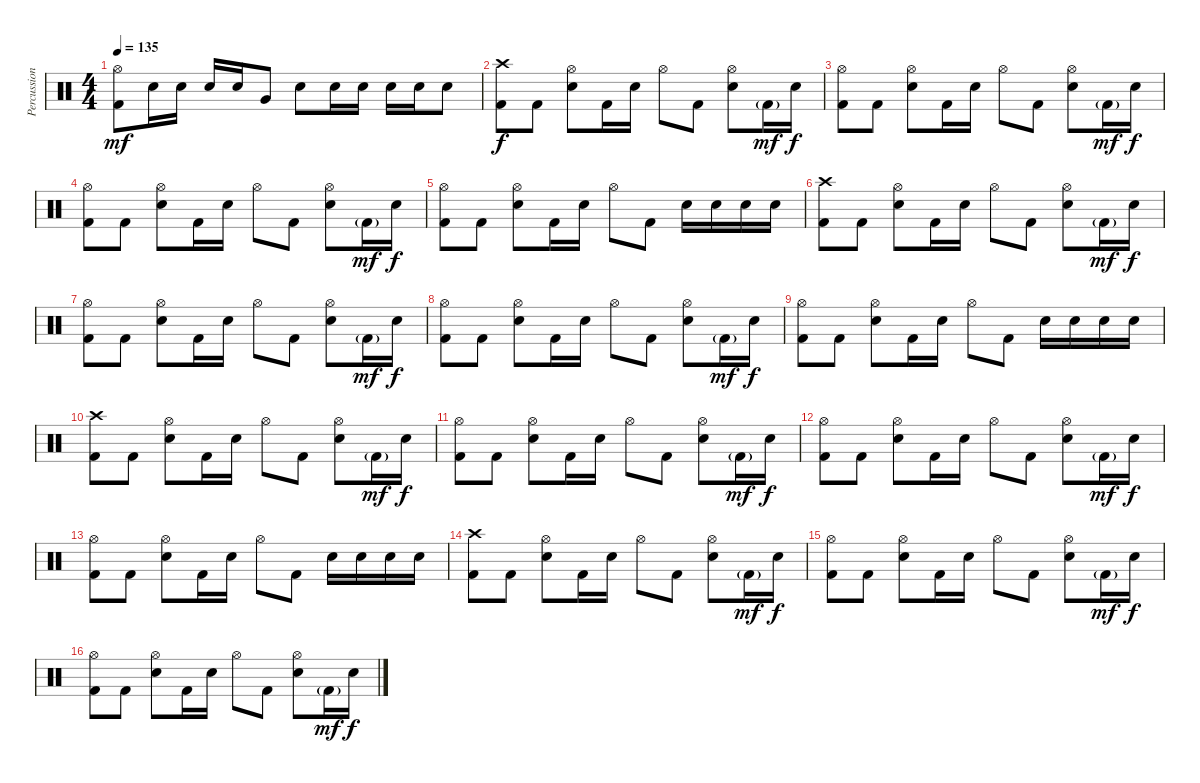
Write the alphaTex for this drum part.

\track ("Percussions" "Percussion") {instrument percussion}
\staff {score}
\articulation defaults
\ts (4 4)
\tempo 135
\clef neutral
\ks c
("Hi-Hat (open)" "Kick (hit) 2").8{dy mf} "Snare (hit) 2".16 "Snare (hit) 2".16 "Snare (hit) 2".16 "Snare (hit) 2".16 "Very Low Tom (hit)".8 "Snare (hit) 2".8 "Snare (hit) 2".16 "Snare (hit) 2".16 "Snare (hit) 2".16 "Snare (hit) 2".16 "Snare (hit) 2".8 |
("Crash high (hit)" "Kick (hit) 2").8{dy f} "Kick (hit) 2".8 ("Hi-Hat (open)" "Snare (hit) 2").8 "Kick (hit) 2".16 "Snare (hit) 2".16 "Hi-Hat (open)".8 "Kick (hit) 2".8 ("Hi-Hat (open)" "Snare (hit) 2").8 "Kick (hit) 2"{g}.16{dy mf} "Snare (hit) 2".16{dy f} |
("Hi-Hat (open)" "Kick (hit) 2").8 "Kick (hit) 2".8 ("Hi-Hat (open)" "Snare (hit) 2").8 "Kick (hit) 2".16 "Snare (hit) 2".16 "Hi-Hat (open)".8 "Kick (hit) 2".8 ("Hi-Hat (open)" "Snare (hit) 2").8 "Kick (hit) 2"{g}.16{dy mf} "Snare (hit) 2".16{dy f} |
("Hi-Hat (open)" "Kick (hit) 2").8 "Kick (hit) 2".8 ("Hi-Hat (open)" "Snare (hit) 2").8 "Kick (hit) 2".16 "Snare (hit) 2".16 "Hi-Hat (open)".8 "Kick (hit) 2".8 ("Hi-Hat (open)" "Snare (hit) 2").8 "Kick (hit) 2"{g}.16{dy mf} "Snare (hit) 2".16{dy f} |
("Hi-Hat (open)" "Kick (hit) 2").8 "Kick (hit) 2".8 ("Hi-Hat (open)" "Snare (hit) 2").8 "Kick (hit) 2".16 "Snare (hit) 2".16 "Hi-Hat (open)".8 "Kick (hit) 2".8 "Snare (hit) 2".16 "Snare (hit) 2".16 "Snare (hit) 2".16 "Snare (hit) 2".16 |
("Crash high (hit)" "Kick (hit) 2").8 "Kick (hit) 2".8 ("Hi-Hat (open)" "Snare (hit) 2").8 "Kick (hit) 2".16 "Snare (hit) 2".16 "Hi-Hat (open)".8 "Kick (hit) 2".8 ("Hi-Hat (open)" "Snare (hit) 2").8 "Kick (hit) 2"{g}.16{dy mf} "Snare (hit) 2".16{dy f} |
("Hi-Hat (open)" "Kick (hit) 2").8 "Kick (hit) 2".8 ("Hi-Hat (open)" "Snare (hit) 2").8 "Kick (hit) 2".16 "Snare (hit) 2".16 "Hi-Hat (open)".8 "Kick (hit) 2".8 ("Hi-Hat (open)" "Snare (hit) 2").8 "Kick (hit) 2"{g}.16{dy mf} "Snare (hit) 2".16{dy f} |
("Hi-Hat (open)" "Kick (hit) 2").8 "Kick (hit) 2".8 ("Hi-Hat (open)" "Snare (hit) 2").8 "Kick (hit) 2".16 "Snare (hit) 2".16 "Hi-Hat (open)".8 "Kick (hit) 2".8 ("Hi-Hat (open)" "Snare (hit) 2").8 "Kick (hit) 2"{g}.16{dy mf} "Snare (hit) 2".16{dy f} |
("Hi-Hat (open)" "Kick (hit) 2").8 "Kick (hit) 2".8 ("Hi-Hat (open)" "Snare (hit) 2").8 "Kick (hit) 2".16 "Snare (hit) 2".16 "Hi-Hat (open)".8 "Kick (hit) 2".8 "Snare (hit) 2".16 "Snare (hit) 2".16 "Snare (hit) 2".16 "Snare (hit) 2".16 |
("Crash high (hit)" "Kick (hit) 2").8 "Kick (hit) 2".8 ("Hi-Hat (open)" "Snare (hit) 2").8 "Kick (hit) 2".16 "Snare (hit) 2".16 "Hi-Hat (open)".8 "Kick (hit) 2".8 ("Hi-Hat (open)" "Snare (hit) 2").8 "Kick (hit) 2"{g}.16{dy mf} "Snare (hit) 2".16{dy f} |
("Hi-Hat (open)" "Kick (hit) 2").8 "Kick (hit) 2".8 ("Hi-Hat (open)" "Snare (hit) 2").8 "Kick (hit) 2".16 "Snare (hit) 2".16 "Hi-Hat (open)".8 "Kick (hit) 2".8 ("Hi-Hat (open)" "Snare (hit) 2").8 "Kick (hit) 2"{g}.16{dy mf} "Snare (hit) 2".16{dy f} |
("Hi-Hat (open)" "Kick (hit) 2").8 "Kick (hit) 2".8 ("Hi-Hat (open)" "Snare (hit) 2").8 "Kick (hit) 2".16 "Snare (hit) 2".16 "Hi-Hat (open)".8 "Kick (hit) 2".8 ("Hi-Hat (open)" "Snare (hit) 2").8 "Kick (hit) 2"{g}.16{dy mf} "Snare (hit) 2".16{dy f} |
("Hi-Hat (open)" "Kick (hit) 2").8 "Kick (hit) 2".8 ("Hi-Hat (open)" "Snare (hit) 2").8 "Kick (hit) 2".16 "Snare (hit) 2".16 "Hi-Hat (open)".8 "Kick (hit) 2".8 "Snare (hit) 2".16 "Snare (hit) 2".16 "Snare (hit) 2".16 "Snare (hit) 2".16 |
("Crash high (hit)" "Kick (hit) 2").8 "Kick (hit) 2".8 ("Hi-Hat (open)" "Snare (hit) 2").8 "Kick (hit) 2".16 "Snare (hit) 2".16 "Hi-Hat (open)".8 "Kick (hit) 2".8 ("Hi-Hat (open)" "Snare (hit) 2").8 "Kick (hit) 2"{g}.16{dy mf} "Snare (hit) 2".16{dy f} |
("Hi-Hat (open)" "Kick (hit) 2").8 "Kick (hit) 2".8 ("Hi-Hat (open)" "Snare (hit) 2").8 "Kick (hit) 2".16 "Snare (hit) 2".16 "Hi-Hat (open)".8 "Kick (hit) 2".8 ("Hi-Hat (open)" "Snare (hit) 2").8 "Kick (hit) 2"{g}.16{dy mf} "Snare (hit) 2".16{dy f} |
("Hi-Hat (open)" "Kick (hit) 2").8 "Kick (hit) 2".8 ("Hi-Hat (open)" "Snare (hit) 2").8 "Kick (hit) 2".16 "Snare (hit) 2".16 "Hi-Hat (open)".8 "Kick (hit) 2".8 ("Hi-Hat (open)" "Snare (hit) 2").8 "Kick (hit) 2"{g}.16{dy mf} "Snare (hit) 2".16{dy f}
